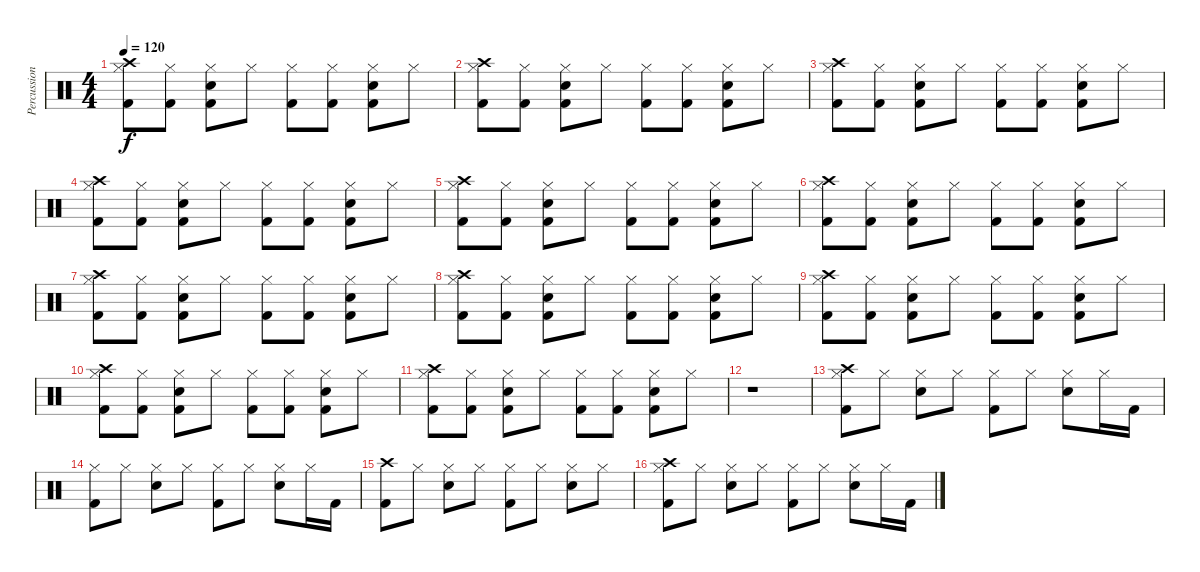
\track ("Percussion" "Percussion") {instrument percussion}
\staff {score}
\articulation defaults
\ts (4 4)
\tempo 120
\clef neutral
\ks c
("Kick (hit) 2" "Hi-Hat (closed)" "Crash high (hit)").8{dy f} ("Kick (hit) 2" "Hi-Hat (closed)").8 ("Kick (hit) 2" "Snare (hit) 2" "Hi-Hat (closed)").8 "Hi-Hat (closed)".8 ("Kick (hit) 2" "Hi-Hat (closed)").8 ("Kick (hit) 2" "Hi-Hat (closed)").8 ("Kick (hit) 2" "Snare (hit) 2" "Hi-Hat (closed)").8 "Hi-Hat (closed)".8 |
("Kick (hit) 2" "Hi-Hat (closed)" "Crash high (hit)").8 ("Kick (hit) 2" "Hi-Hat (closed)").8 ("Kick (hit) 2" "Snare (hit) 2" "Hi-Hat (closed)").8 "Hi-Hat (closed)".8 ("Kick (hit) 2" "Hi-Hat (closed)").8 ("Kick (hit) 2" "Hi-Hat (closed)").8 ("Kick (hit) 2" "Snare (hit) 2" "Hi-Hat (closed)").8 "Hi-Hat (closed)".8 |
("Kick (hit) 2" "Hi-Hat (closed)" "Crash high (hit)").8 ("Kick (hit) 2" "Hi-Hat (closed)").8 ("Kick (hit) 2" "Snare (hit) 2" "Hi-Hat (closed)").8 "Hi-Hat (closed)".8 ("Kick (hit) 2" "Hi-Hat (closed)").8 ("Kick (hit) 2" "Hi-Hat (closed)").8 ("Kick (hit) 2" "Snare (hit) 2" "Hi-Hat (closed)").8 "Hi-Hat (closed)".8 |
("Kick (hit) 2" "Hi-Hat (closed)" "Crash high (hit)").8 ("Kick (hit) 2" "Hi-Hat (closed)").8 ("Kick (hit) 2" "Snare (hit) 2" "Hi-Hat (closed)").8 "Hi-Hat (closed)".8 ("Kick (hit) 2" "Hi-Hat (closed)").8 ("Kick (hit) 2" "Hi-Hat (closed)").8 ("Kick (hit) 2" "Snare (hit) 2" "Hi-Hat (closed)").8 "Hi-Hat (closed)".8 |
("Kick (hit) 2" "Hi-Hat (closed)" "Crash high (hit)").8 ("Kick (hit) 2" "Hi-Hat (closed)").8 ("Kick (hit) 2" "Snare (hit) 2" "Hi-Hat (closed)").8 "Hi-Hat (closed)".8 ("Kick (hit) 2" "Hi-Hat (closed)").8 ("Kick (hit) 2" "Hi-Hat (closed)").8 ("Kick (hit) 2" "Snare (hit) 2" "Hi-Hat (closed)").8 "Hi-Hat (closed)".8 |
("Kick (hit) 2" "Hi-Hat (closed)" "Crash high (hit)").8 ("Kick (hit) 2" "Hi-Hat (closed)").8 ("Kick (hit) 2" "Snare (hit) 2" "Hi-Hat (closed)").8 "Hi-Hat (closed)".8 ("Kick (hit) 2" "Hi-Hat (closed)").8 ("Kick (hit) 2" "Hi-Hat (closed)").8 ("Kick (hit) 2" "Snare (hit) 2" "Hi-Hat (closed)").8 "Hi-Hat (closed)".8 |
("Kick (hit) 2" "Hi-Hat (closed)" "Crash high (hit)").8 ("Kick (hit) 2" "Hi-Hat (closed)").8 ("Kick (hit) 2" "Snare (hit) 2" "Hi-Hat (closed)").8 "Hi-Hat (closed)".8 ("Kick (hit) 2" "Hi-Hat (closed)").8 ("Kick (hit) 2" "Hi-Hat (closed)").8 ("Kick (hit) 2" "Snare (hit) 2" "Hi-Hat (closed)").8 "Hi-Hat (closed)".8 |
("Kick (hit) 2" "Hi-Hat (closed)" "Crash high (hit)").8 ("Kick (hit) 2" "Hi-Hat (closed)").8 ("Kick (hit) 2" "Snare (hit) 2" "Hi-Hat (closed)").8 "Hi-Hat (closed)".8 ("Kick (hit) 2" "Hi-Hat (closed)").8 ("Kick (hit) 2" "Hi-Hat (closed)").8 ("Kick (hit) 2" "Snare (hit) 2" "Hi-Hat (closed)").8 "Hi-Hat (closed)".8 |
("Kick (hit) 2" "Hi-Hat (closed)" "Crash high (hit)").8 ("Kick (hit) 2" "Hi-Hat (closed)").8 ("Kick (hit) 2" "Snare (hit) 2" "Hi-Hat (closed)").8 "Hi-Hat (closed)".8 ("Kick (hit) 2" "Hi-Hat (closed)").8 ("Kick (hit) 2" "Hi-Hat (closed)").8 ("Kick (hit) 2" "Snare (hit) 2" "Hi-Hat (closed)").8 "Hi-Hat (closed)".8 |
("Kick (hit) 2" "Hi-Hat (closed)" "Crash high (hit)").8 ("Kick (hit) 2" "Hi-Hat (closed)").8 ("Kick (hit) 2" "Snare (hit) 2" "Hi-Hat (closed)").8 "Hi-Hat (closed)".8 ("Kick (hit) 2" "Hi-Hat (closed)").8 ("Kick (hit) 2" "Hi-Hat (closed)").8 ("Kick (hit) 2" "Snare (hit) 2" "Hi-Hat (closed)").8 "Hi-Hat (closed)".8 |
("Kick (hit) 2" "Hi-Hat (closed)" "Crash high (hit)").8 ("Kick (hit) 2" "Hi-Hat (closed)").8 ("Kick (hit) 2" "Snare (hit) 2" "Hi-Hat (closed)").8 "Hi-Hat (closed)".8 ("Kick (hit) 2" "Hi-Hat (closed)").8 ("Kick (hit) 2" "Hi-Hat (closed)").8 ("Kick (hit) 2" "Snare (hit) 2" "Hi-Hat (closed)").8 "Hi-Hat (closed)".8 |
r.1 |
("Kick (hit) 2" "Hi-Hat (closed)" "Crash high (hit)").8 "Hi-Hat (closed)".8 ("Snare (hit) 2" "Hi-Hat (closed)").8 "Hi-Hat (closed)".8 ("Kick (hit) 2" "Hi-Hat (closed)").8 "Hi-Hat (closed)".8 ("Snare (hit) 2" "Hi-Hat (closed)").8 "Hi-Hat (closed)".16 "Kick (hit) 2".16 |
("Kick (hit) 2" "Hi-Hat (closed)").8 "Hi-Hat (closed)".8 ("Snare (hit) 2" "Hi-Hat (closed)").8 "Hi-Hat (closed)".8 ("Kick (hit) 2" "Hi-Hat (closed)").8 "Hi-Hat (closed)".8 ("Snare (hit) 2" "Hi-Hat (closed)").8 "Hi-Hat (closed)".16 "Kick (hit) 2".16 |
("Kick (hit) 2" "Crash high (hit)").8 "Hi-Hat (closed)".8 ("Snare (hit) 2" "Hi-Hat (closed)").8 "Hi-Hat (closed)".8 ("Kick (hit) 2" "Hi-Hat (closed)").8 "Hi-Hat (closed)".8 ("Snare (hit) 2" "Hi-Hat (closed)").8 "Hi-Hat (closed)".8 |
("Kick (hit) 2" "Hi-Hat (closed)" "Crash high (hit)").8 "Hi-Hat (closed)".8 ("Snare (hit) 2" "Hi-Hat (closed)").8 "Hi-Hat (closed)".8 ("Kick (hit) 2" "Hi-Hat (closed)").8 "Hi-Hat (closed)".8 ("Snare (hit) 2" "Hi-Hat (closed)").8 "Hi-Hat (closed)".16 "Kick (hit) 2".16
